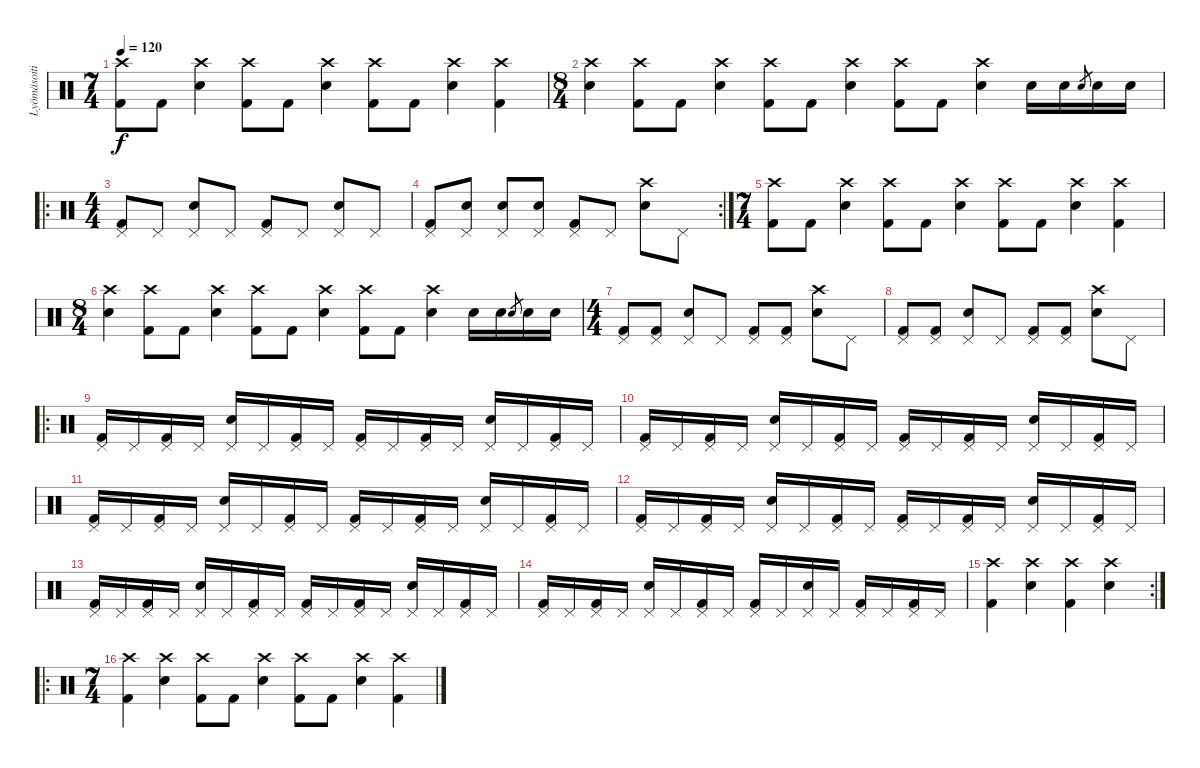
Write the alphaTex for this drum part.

\track ("Lyömäsoitin" "Lyömäsoiti") {instrument percussion}
\staff {score}
\articulation defaults
\ts (7 4)
\tempo 120
\clef neutral
\ks c
("Crash high (hit)" "Kick (hit) 2").8{dy f} "Kick (hit) 2".8 ("Crash high (hit)" "Snare (hit) 2").4 ("Crash high (hit)" "Kick (hit) 2").8 "Kick (hit) 2".8 ("Crash high (hit)" "Snare (hit) 2").4 ("Crash high (hit)" "Kick (hit) 2").8 "Kick (hit) 2".8 ("Crash high (hit)" "Snare (hit) 2").4 ("Crash high (hit)" "Kick (hit) 2").4 |
\ts (8 4)
("Crash high (hit)" "Snare (hit) 2").4 ("Crash high (hit)" "Kick (hit) 2").8 "Kick (hit) 2".8 ("Crash high (hit)" "Snare (hit) 2").4 ("Crash high (hit)" "Kick (hit) 2").8 "Kick (hit) 2".8 ("Crash high (hit)" "Snare (hit) 2").4 ("Crash high (hit)" "Kick (hit) 2").8 "Kick (hit) 2".8 ("Crash high (hit)" "Snare (hit) 2").4 "Snare (hit) 2".16 "Snare (hit) 2".16 "Snare (hit) 2".8{gr} "Snare (hit) 2".16 "Snare (hit) 2".16 |
\ro
\ts (4 4)
("Pedal Hi-Hat (hit)" "Kick (hit) 2").8 "Pedal Hi-Hat (hit)".8 ("Pedal Hi-Hat (hit)" "Snare (hit) 2").8 "Pedal Hi-Hat (hit)".8 ("Pedal Hi-Hat (hit)" "Kick (hit) 2").8 "Pedal Hi-Hat (hit)".8 ("Pedal Hi-Hat (hit)" "Snare (hit) 2").8 "Pedal Hi-Hat (hit)".8 |
\rc 2
("Pedal Hi-Hat (hit)" "Kick (hit) 2").8 ("Pedal Hi-Hat (hit)" "Snare (hit) 2").8 ("Pedal Hi-Hat (hit)" "Snare (hit) 2").8 ("Pedal Hi-Hat (hit)" "Snare (hit) 2").8 ("Pedal Hi-Hat (hit)" "Kick (hit) 2").8 "Pedal Hi-Hat (hit)".8 ("Crash high (hit)" "Snare (hit) 2").8 "Pedal Hi-Hat (hit)".8 |
\ts (7 4)
("Crash high (hit)" "Kick (hit) 2").8 "Kick (hit) 2".8 ("Crash high (hit)" "Snare (hit) 2").4 ("Crash high (hit)" "Kick (hit) 2").8 "Kick (hit) 2".8 ("Crash high (hit)" "Snare (hit) 2").4 ("Crash high (hit)" "Kick (hit) 2").8 "Kick (hit) 2".8 ("Crash high (hit)" "Snare (hit) 2").4 ("Crash high (hit)" "Kick (hit) 2").4 |
\ts (8 4)
("Crash high (hit)" "Snare (hit) 2").4 ("Crash high (hit)" "Kick (hit) 2").8 "Kick (hit) 2".8 ("Crash high (hit)" "Snare (hit) 2").4 ("Crash high (hit)" "Kick (hit) 2").8 "Kick (hit) 2".8 ("Crash high (hit)" "Snare (hit) 2").4 ("Crash high (hit)" "Kick (hit) 2").8 "Kick (hit) 2".8 ("Crash high (hit)" "Snare (hit) 2").4 "Snare (hit) 2".16 "Snare (hit) 2".16 "Snare (hit) 2".8{gr} "Snare (hit) 2".16 "Snare (hit) 2".16 |
\ts (4 4)
("Pedal Hi-Hat (hit)" "Kick (hit) 2").8 ("Pedal Hi-Hat (hit)" "Kick (hit) 2").8 ("Pedal Hi-Hat (hit)" "Snare (hit) 2").8 "Pedal Hi-Hat (hit)".8 ("Pedal Hi-Hat (hit)" "Kick (hit) 2").8 ("Pedal Hi-Hat (hit)" "Kick (hit) 2").8 ("Crash high (hit)" "Snare (hit) 2").8 "Pedal Hi-Hat (hit)".8 |
("Pedal Hi-Hat (hit)" "Kick (hit) 2").8 ("Pedal Hi-Hat (hit)" "Kick (hit) 2").8 ("Pedal Hi-Hat (hit)" "Snare (hit) 2").8 "Pedal Hi-Hat (hit)".8 ("Pedal Hi-Hat (hit)" "Kick (hit) 2").8 ("Pedal Hi-Hat (hit)" "Kick (hit) 2").8 ("Crash high (hit)" "Snare (hit) 2").8 "Pedal Hi-Hat (hit)".8 |
\ro
("Pedal Hi-Hat (hit)" "Kick (hit) 2").16 "Pedal Hi-Hat (hit)".16 ("Pedal Hi-Hat (hit)" "Kick (hit) 2").16 "Pedal Hi-Hat (hit)".16 ("Pedal Hi-Hat (hit)" "Snare (hit) 2").16 "Pedal Hi-Hat (hit)".16 ("Pedal Hi-Hat (hit)" "Kick (hit) 2").16 "Pedal Hi-Hat (hit)".16 ("Pedal Hi-Hat (hit)" "Kick (hit) 2").16 "Pedal Hi-Hat (hit)".16 ("Pedal Hi-Hat (hit)" "Kick (hit) 2").16 "Pedal Hi-Hat (hit)".16 ("Pedal Hi-Hat (hit)" "Snare (hit) 2").16 "Pedal Hi-Hat (hit)".16 ("Pedal Hi-Hat (hit)" "Kick (hit) 2").16 "Pedal Hi-Hat (hit)".16 |
("Pedal Hi-Hat (hit)" "Kick (hit) 2").16 "Pedal Hi-Hat (hit)".16 ("Pedal Hi-Hat (hit)" "Kick (hit) 2").16 "Pedal Hi-Hat (hit)".16 ("Pedal Hi-Hat (hit)" "Snare (hit) 2").16 "Pedal Hi-Hat (hit)".16 ("Pedal Hi-Hat (hit)" "Kick (hit) 2").16 "Pedal Hi-Hat (hit)".16 ("Pedal Hi-Hat (hit)" "Kick (hit) 2").16 "Pedal Hi-Hat (hit)".16 ("Pedal Hi-Hat (hit)" "Kick (hit) 2").16 "Pedal Hi-Hat (hit)".16 ("Pedal Hi-Hat (hit)" "Snare (hit) 2").16 "Pedal Hi-Hat (hit)".16 ("Pedal Hi-Hat (hit)" "Kick (hit) 2").16 "Pedal Hi-Hat (hit)".16 |
("Pedal Hi-Hat (hit)" "Kick (hit) 2").16 "Pedal Hi-Hat (hit)".16 ("Pedal Hi-Hat (hit)" "Kick (hit) 2").16 "Pedal Hi-Hat (hit)".16 ("Pedal Hi-Hat (hit)" "Snare (hit) 2").16 "Pedal Hi-Hat (hit)".16 ("Pedal Hi-Hat (hit)" "Kick (hit) 2").16 "Pedal Hi-Hat (hit)".16 ("Pedal Hi-Hat (hit)" "Kick (hit) 2").16 "Pedal Hi-Hat (hit)".16 ("Pedal Hi-Hat (hit)" "Kick (hit) 2").16 "Pedal Hi-Hat (hit)".16 ("Pedal Hi-Hat (hit)" "Snare (hit) 2").16 "Pedal Hi-Hat (hit)".16 ("Pedal Hi-Hat (hit)" "Kick (hit) 2").16 "Pedal Hi-Hat (hit)".16 |
("Pedal Hi-Hat (hit)" "Kick (hit) 2").16 "Pedal Hi-Hat (hit)".16 ("Pedal Hi-Hat (hit)" "Kick (hit) 2").16 "Pedal Hi-Hat (hit)".16 ("Pedal Hi-Hat (hit)" "Snare (hit) 2").16 "Pedal Hi-Hat (hit)".16 ("Pedal Hi-Hat (hit)" "Kick (hit) 2").16 "Pedal Hi-Hat (hit)".16 ("Pedal Hi-Hat (hit)" "Kick (hit) 2").16 "Pedal Hi-Hat (hit)".16 ("Pedal Hi-Hat (hit)" "Kick (hit) 2").16 "Pedal Hi-Hat (hit)".16 ("Pedal Hi-Hat (hit)" "Snare (hit) 2").16 "Pedal Hi-Hat (hit)".16 ("Pedal Hi-Hat (hit)" "Kick (hit) 2").16 "Pedal Hi-Hat (hit)".16 |
("Pedal Hi-Hat (hit)" "Kick (hit) 2").16 "Pedal Hi-Hat (hit)".16 ("Pedal Hi-Hat (hit)" "Kick (hit) 2").16 "Pedal Hi-Hat (hit)".16 ("Pedal Hi-Hat (hit)" "Snare (hit) 2").16 "Pedal Hi-Hat (hit)".16 ("Pedal Hi-Hat (hit)" "Kick (hit) 2").16 "Pedal Hi-Hat (hit)".16 ("Pedal Hi-Hat (hit)" "Kick (hit) 2").16 "Pedal Hi-Hat (hit)".16 ("Pedal Hi-Hat (hit)" "Kick (hit) 2").16 "Pedal Hi-Hat (hit)".16 ("Pedal Hi-Hat (hit)" "Snare (hit) 2").16 "Pedal Hi-Hat (hit)".16 ("Pedal Hi-Hat (hit)" "Kick (hit) 2").16 "Pedal Hi-Hat (hit)".16 |
("Pedal Hi-Hat (hit)" "Kick (hit) 2").16 "Pedal Hi-Hat (hit)".16 ("Pedal Hi-Hat (hit)" "Kick (hit) 2").16 "Pedal Hi-Hat (hit)".16 ("Pedal Hi-Hat (hit)" "Snare (hit) 2").16 "Pedal Hi-Hat (hit)".16 ("Pedal Hi-Hat (hit)" "Kick (hit) 2").16 "Pedal Hi-Hat (hit)".16 ("Pedal Hi-Hat (hit)" "Kick (hit) 2").16 "Pedal Hi-Hat (hit)".16 ("Pedal Hi-Hat (hit)" "Snare (hit) 2").16 "Pedal Hi-Hat (hit)".16 ("Pedal Hi-Hat (hit)" "Kick (hit) 2").16 "Pedal Hi-Hat (hit)".16 ("Pedal Hi-Hat (hit)" "Kick (hit) 2").16 "Pedal Hi-Hat (hit)".16 |
\rc 2
("Crash high (hit)" "Kick (hit) 2").4 ("Crash high (hit)" "Snare (hit) 2").4 ("Crash high (hit)" "Kick (hit) 2").4 ("Crash high (hit)" "Snare (hit) 2").4 |
\ro
\ts (7 4)
("Crash high (hit)" "Kick (hit) 2").4 ("Crash high (hit)" "Snare (hit) 2").4 ("Crash high (hit)" "Kick (hit) 2").8 "Kick (hit) 2".8 ("Crash high (hit)" "Snare (hit) 2").4 ("Crash high (hit)" "Kick (hit) 2").8 "Kick (hit) 2".8 ("Crash high (hit)" "Snare (hit) 2").4 ("Crash high (hit)" "Kick (hit) 2").4
